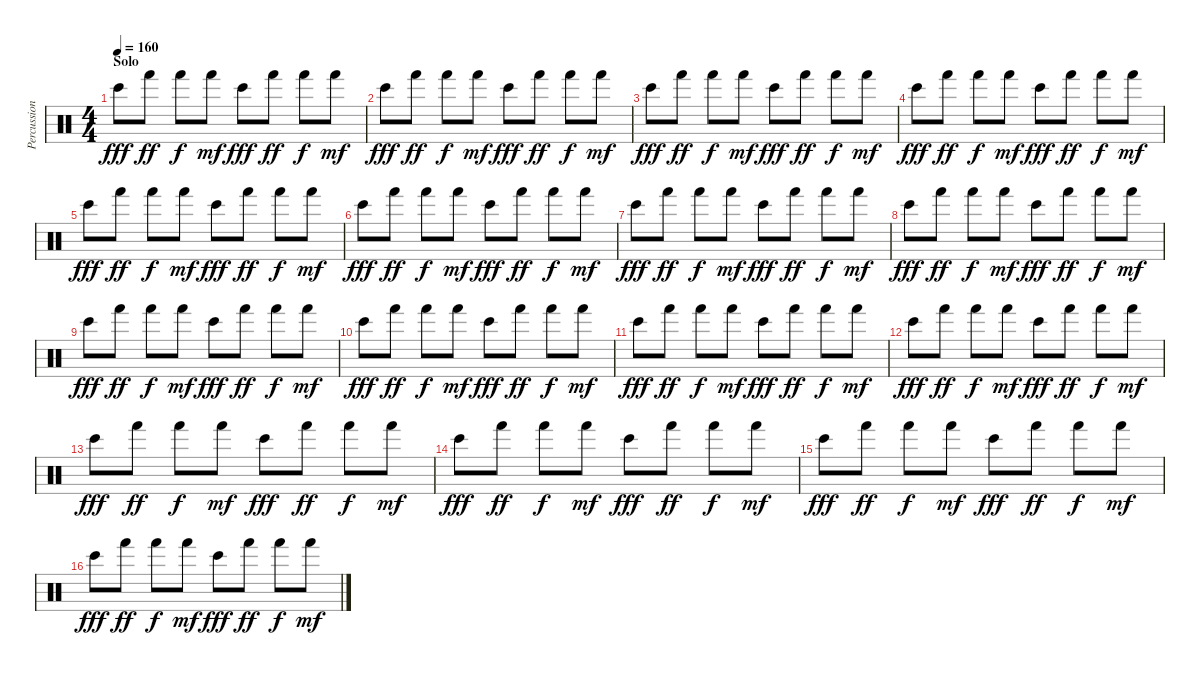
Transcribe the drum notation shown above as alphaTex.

\track ("Percussion" "Percussion") {instrument percussion}
\staff {score}
\articulation defaults
\ts (4 4)
\section ("" "Solo")
\tempo 160
\clef neutral
\ks c "Bongo High (hit)".8{dy fff} "Hand (hit)".8{dy ff} "Hand (hit)".8{dy f} "Hand (hit)".8{dy mf} "Bongo High (hit)".8{dy fff} "Hand (hit)".8{dy ff} "Hand (hit)".8{dy f} "Hand (hit)".8{dy mf}
|
"Bongo High (hit)".8{dy fff} "Hand (hit)".8{dy ff} "Hand (hit)".8{dy f} "Hand (hit)".8{dy mf} "Bongo High (hit)".8{dy fff} "Hand (hit)".8{dy ff} "Hand (hit)".8{dy f} "Hand (hit)".8{dy mf} |
"Bongo High (hit)".8{dy fff} "Hand (hit)".8{dy ff} "Hand (hit)".8{dy f} "Hand (hit)".8{dy mf} "Bongo High (hit)".8{dy fff} "Hand (hit)".8{dy ff} "Hand (hit)".8{dy f} "Hand (hit)".8{dy mf} |
"Bongo High (hit)".8{dy fff} "Hand (hit)".8{dy ff} "Hand (hit)".8{dy f} "Hand (hit)".8{dy mf} "Bongo High (hit)".8{dy fff} "Hand (hit)".8{dy ff} "Hand (hit)".8{dy f} "Hand (hit)".8{dy mf} |
"Bongo High (hit)".8{dy fff} "Hand (hit)".8{dy ff} "Hand (hit)".8{dy f} "Hand (hit)".8{dy mf} "Bongo High (hit)".8{dy fff} "Hand (hit)".8{dy ff} "Hand (hit)".8{dy f} "Hand (hit)".8{dy mf} |
"Bongo High (hit)".8{dy fff} "Hand (hit)".8{dy ff} "Hand (hit)".8{dy f} "Hand (hit)".8{dy mf} "Bongo High (hit)".8{dy fff} "Hand (hit)".8{dy ff} "Hand (hit)".8{dy f} "Hand (hit)".8{dy mf} |
"Bongo High (hit)".8{dy fff} "Hand (hit)".8{dy ff} "Hand (hit)".8{dy f} "Hand (hit)".8{dy mf} "Bongo High (hit)".8{dy fff} "Hand (hit)".8{dy ff} "Hand (hit)".8{dy f} "Hand (hit)".8{dy mf} |
"Bongo High (hit)".8{dy fff} "Hand (hit)".8{dy ff} "Hand (hit)".8{dy f} "Hand (hit)".8{dy mf} "Bongo High (hit)".8{dy fff} "Hand (hit)".8{dy ff} "Hand (hit)".8{dy f} "Hand (hit)".8{dy mf} |
"Bongo High (hit)".8{dy fff} "Hand (hit)".8{dy ff} "Hand (hit)".8{dy f} "Hand (hit)".8{dy mf} "Bongo High (hit)".8{dy fff} "Hand (hit)".8{dy ff} "Hand (hit)".8{dy f} "Hand (hit)".8{dy mf} |
"Bongo High (hit)".8{dy fff} "Hand (hit)".8{dy ff} "Hand (hit)".8{dy f} "Hand (hit)".8{dy mf} "Bongo High (hit)".8{dy fff} "Hand (hit)".8{dy ff} "Hand (hit)".8{dy f} "Hand (hit)".8{dy mf} |
"Bongo High (hit)".8{dy fff} "Hand (hit)".8{dy ff} "Hand (hit)".8{dy f} "Hand (hit)".8{dy mf} "Bongo High (hit)".8{dy fff} "Hand (hit)".8{dy ff} "Hand (hit)".8{dy f} "Hand (hit)".8{dy mf} |
"Bongo High (hit)".8{dy fff} "Hand (hit)".8{dy ff} "Hand (hit)".8{dy f} "Hand (hit)".8{dy mf} "Bongo High (hit)".8{dy fff} "Hand (hit)".8{dy ff} "Hand (hit)".8{dy f} "Hand (hit)".8{dy mf} |
"Bongo High (hit)".8{dy fff} "Hand (hit)".8{dy ff} "Hand (hit)".8{dy f} "Hand (hit)".8{dy mf} "Bongo High (hit)".8{dy fff} "Hand (hit)".8{dy ff} "Hand (hit)".8{dy f} "Hand (hit)".8{dy mf} |
"Bongo High (hit)".8{dy fff} "Hand (hit)".8{dy ff} "Hand (hit)".8{dy f} "Hand (hit)".8{dy mf} "Bongo High (hit)".8{dy fff} "Hand (hit)".8{dy ff} "Hand (hit)".8{dy f} "Hand (hit)".8{dy mf} |
"Bongo High (hit)".8{dy fff} "Hand (hit)".8{dy ff} "Hand (hit)".8{dy f} "Hand (hit)".8{dy mf} "Bongo High (hit)".8{dy fff} "Hand (hit)".8{dy ff} "Hand (hit)".8{dy f} "Hand (hit)".8{dy mf} |
"Bongo High (hit)".8{dy fff} "Hand (hit)".8{dy ff} "Hand (hit)".8{dy f} "Hand (hit)".8{dy mf} "Bongo High (hit)".8{dy fff} "Hand (hit)".8{dy ff} "Hand (hit)".8{dy f} "Hand (hit)".8{dy mf}
